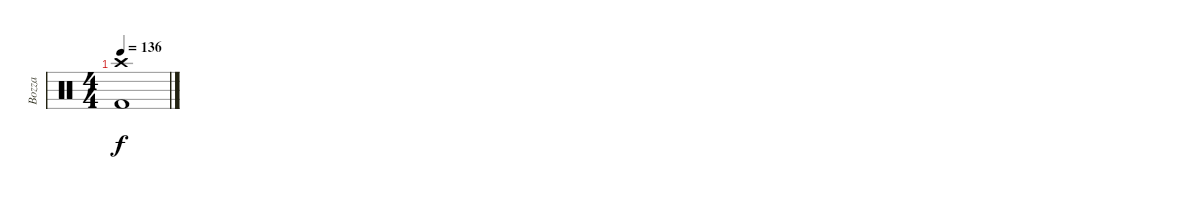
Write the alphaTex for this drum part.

\track ("Bozza" "Bozza") {instrument percussion}
\staff {score}
\articulation defaults
\ts (4 4)
\tempo 136
\clef neutral
\ks c
("Crash high (hit)" "Kick (hit) 2").1{dy f}
